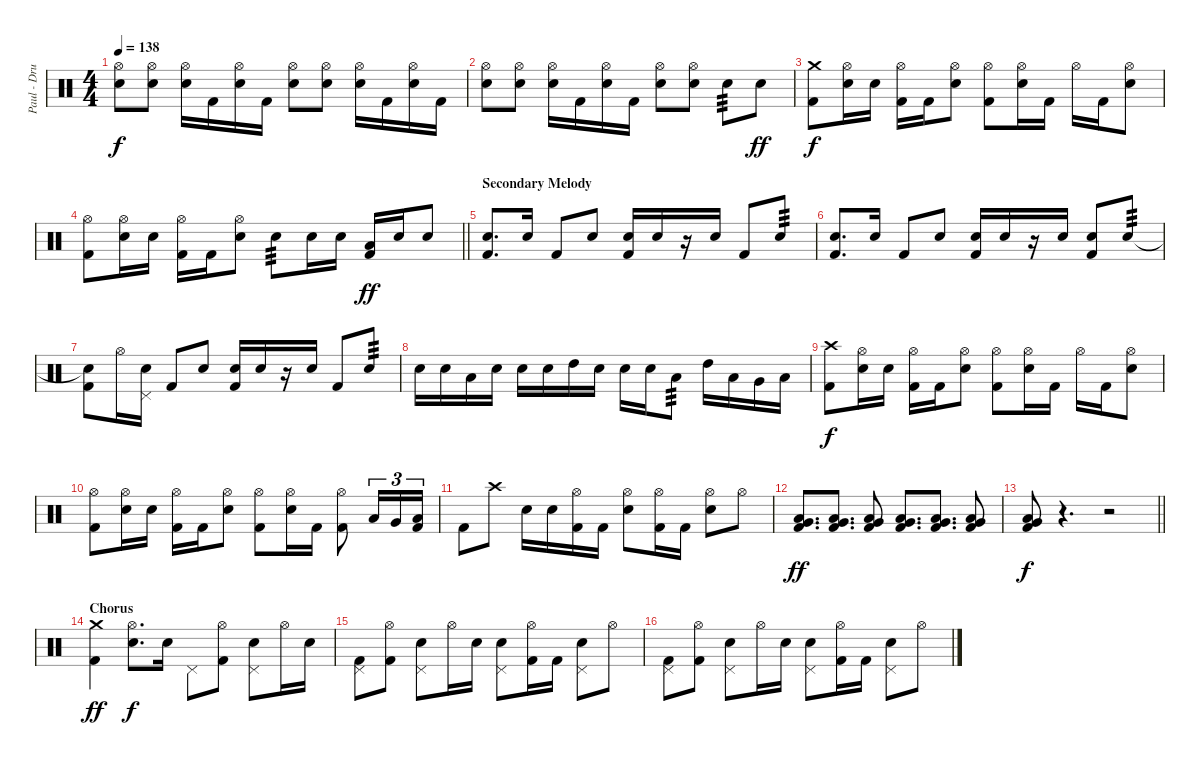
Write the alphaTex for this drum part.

\track ("Paul - Drums" "Paul - Dru") {instrument percussion}
\staff {score}
\articulation defaults
\ts (4 4)
\tempo 138
\clef neutral
\ks c
("Hi-Hat (open)" "Electric Snare (hit)").8{dy f} ("Hi-Hat (open)" "Electric Snare (hit)").8 ("Hi-Hat (open)" "Electric Snare (hit)").16 "Kick (hit) 2".16 ("Hi-Hat (open)" "Electric Snare (hit)").16 "Kick (hit) 2".16 ("Hi-Hat (open)" "Electric Snare (hit)").8 ("Hi-Hat (open)" "Electric Snare (hit)").8 ("Hi-Hat (open)" "Electric Snare (hit)").16 "Kick (hit) 2".16 ("Hi-Hat (open)" "Electric Snare (hit)").16 "Kick (hit) 2".16 |
("Hi-Hat (open)" "Electric Snare (hit)").8 ("Hi-Hat (open)" "Electric Snare (hit)").8 ("Hi-Hat (open)" "Electric Snare (hit)").16 "Kick (hit) 2".16 ("Hi-Hat (open)" "Electric Snare (hit)").16 "Kick (hit) 2".16 ("Hi-Hat (open)" "Electric Snare (hit)").8 ("Hi-Hat (open)" "Electric Snare (hit)").8 "Electric Snare (hit)".8{tp 3} "Electric Snare (hit)".8{dy ff} |
("Crash medium (hit)" "Kick (hit) 2").8{dy f} ("Hi-Hat (open)" "Electric Snare (hit)").16 "Electric Snare (hit)".16 ("Hi-Hat (open)" "Kick (hit) 2").16 "Kick (hit) 2".16 ("Hi-Hat (open)" "Electric Snare (hit)").8 ("Hi-Hat (open)" "Kick (hit) 2").8 ("Hi-Hat (open)" "Electric Snare (hit)").16 "Kick (hit) 2".16 "Hi-Hat (open)".16 "Kick (hit) 2".16 ("Hi-Hat (open)" "Electric Snare (hit)").8 |
\barLineRight lightlight
("Hi-Hat (open)" "Kick (hit) 2").8 ("Hi-Hat (open)" "Electric Snare (hit)").16 "Electric Snare (hit)".16 ("Hi-Hat (open)" "Kick (hit) 2").16 "Kick (hit) 2".16 ("Hi-Hat (open)" "Electric Snare (hit)").8 "Electric Snare (hit)".8{tp 3} "Electric Snare (hit)".16 "Electric Snare (hit)".16 ("Low Floor Tom (hit)" "Kick (hit) 2").16{dy ff} "Electric Snare (hit)".16 "Electric Snare (hit)".8 |
\section ("" "Secondary Melody")
("Electric Snare (hit)" "Kick (hit) 2").8{d} "Electric Snare (hit)".16 "Kick (hit) 2".8 "Electric Snare (hit)".8 ("Electric Snare (hit)" "Kick (hit) 2").16 "Electric Snare (hit)".16 r.16 "Electric Snare (hit)".16 "Kick (hit) 2".8 "Electric Snare (hit)".8{tp 3} |
("Electric Snare (hit)" "Kick (hit) 2").8{d} "Electric Snare (hit)".16 "Kick (hit) 2".8 "Electric Snare (hit)".8 ("Electric Snare (hit)" "Kick (hit) 2").16 "Electric Snare (hit)".16 r.16 "Electric Snare (hit)".16 ("Electric Snare (hit)" "Kick (hit) 2").8 "Electric Snare (hit)".8{tp 3} |
("Electric Snare (hit)"{t} "Kick (hit) 2").8 "Hi-Hat (open)".16 ("Pedal Hi-Hat (hit)" "Electric Snare (hit)").16 "Kick (hit) 2".8 "Electric Snare (hit)".8 ("Electric Snare (hit)" "Kick (hit) 2").16 "Electric Snare (hit)".16 r.16 "Electric Snare (hit)".16 "Kick (hit) 2".8 "Electric Snare (hit)".8{tp 3} |
"Electric Snare (hit)".16 "Electric Snare (hit)".16 "Low Tom (hit)".16 "Electric Snare (hit)".16 "Electric Snare (hit)".16 "Electric Snare (hit)".16 "High Tom (hit)".16 "Electric Snare (hit)".16 "Electric Snare (hit)".16 "Electric Snare (hit)".16 "Low Tom (hit)".8{tp 3} "High Tom (hit)".16 "Low Tom (hit)".16 "Very Low Tom (hit)".16 "Low Floor Tom (hit)".16 |
("Crash high (hit)" "Kick (hit) 2").8{dy f} ("Hi-Hat (open)" "Electric Snare (hit)").16 "Electric Snare (hit)".16 ("Hi-Hat (open)" "Kick (hit) 2").16 "Kick (hit) 2".16 ("Hi-Hat (open)" "Electric Snare (hit)").8 ("Hi-Hat (open)" "Kick (hit) 2").8 ("Hi-Hat (open)" "Electric Snare (hit)").16 "Kick (hit) 2".16 "Hi-Hat (open)".16 "Kick (hit) 2".16 ("Hi-Hat (open)" "Electric Snare (hit)").8 |
("Hi-Hat (open)" "Kick (hit) 2").8 ("Hi-Hat (open)" "Electric Snare (hit)").16 "Electric Snare (hit)".16 ("Hi-Hat (open)" "Kick (hit) 2").16 "Kick (hit) 2".16 ("Hi-Hat (open)" "Electric Snare (hit)").8 ("Hi-Hat (open)" "Kick (hit) 2").8 ("Hi-Hat (open)" "Electric Snare (hit)").16 "Kick (hit) 2".16 ("Hi-Hat (open)" "Kick (hit) 2").8 "Low Tom (hit)".16{tu (3 2)} "Very Low Tom (hit)".16{tu (3 2)} ("Low Floor Tom (hit)" "Kick (hit) 2").16{tu (3 2)} |
"Kick (hit) 2".8 "Crash high (hit)".8 "Electric Snare (hit)".16 "Electric Snare (hit)".16 ("Hi-Hat (open)" "Kick (hit) 2").16 "Kick (hit) 2".16 ("Hi-Hat (open)" "Electric Snare (hit)").8 ("Hi-Hat (open)" "Kick (hit) 2").16 "Kick (hit) 2".16 ("Hi-Hat (open)" "Electric Snare (hit)").8 "Hi-Hat (open)".8 |
("Very Low Tom (hit)" "Low Floor Tom (hit)" "Kick (hit) 2").8{d dy ff} ("Very Low Tom (hit)" "Low Floor Tom (hit)" "Kick (hit) 2").8{d} ("Very Low Tom (hit)" "Low Floor Tom (hit)" "Kick (hit) 2").8 ("Very Low Tom (hit)" "Low Floor Tom (hit)" "Kick (hit) 2").8{d} ("Very Low Tom (hit)" "Low Floor Tom (hit)" "Kick (hit) 2").8{d} ("Very Low Tom (hit)" "Low Floor Tom (hit)" "Kick (hit) 2").8 |
\barLineRight lightlight
("Very Low Tom (hit)" "Low Floor Tom (hit)" "Kick (hit) 2").8{dy f} r.4{d} r.2 |
\section ("" "Chorus")
("Crash medium (hit)" "Kick (hit) 2").4{dy ff} ("Hi-Hat (open)" "Electric Snare (hit)").8{d dy f} "Electric Snare (hit)".16 "Pedal Hi-Hat (hit)".8 ("Hi-Hat (open)" "Kick (hit) 2").8 ("Pedal Hi-Hat (hit)" "Electric Snare (hit)").8 "Hi-Hat (open)".16 "Electric Snare (hit)".16 |
("Pedal Hi-Hat (hit)" "Kick (hit) 2").8 ("Hi-Hat (open)" "Kick (hit) 2").8 ("Pedal Hi-Hat (hit)" "Electric Snare (hit)").8 "Hi-Hat (open)".16 "Electric Snare (hit)".16 ("Pedal Hi-Hat (hit)" "Electric Snare (hit)").8 ("Hi-Hat (open)" "Kick (hit) 2").16 "Kick (hit) 2".16 ("Pedal Hi-Hat (hit)" "Electric Snare (hit)").8 "Hi-Hat (open)".8 |
("Pedal Hi-Hat (hit)" "Kick (hit) 2").8 ("Hi-Hat (open)" "Kick (hit) 2").8 ("Pedal Hi-Hat (hit)" "Electric Snare (hit)").8 "Hi-Hat (open)".16 "Electric Snare (hit)".16 ("Pedal Hi-Hat (hit)" "Electric Snare (hit)").8 ("Hi-Hat (open)" "Kick (hit) 2").16 "Kick (hit) 2".16 ("Pedal Hi-Hat (hit)" "Electric Snare (hit)").8 "Hi-Hat (open)".8
